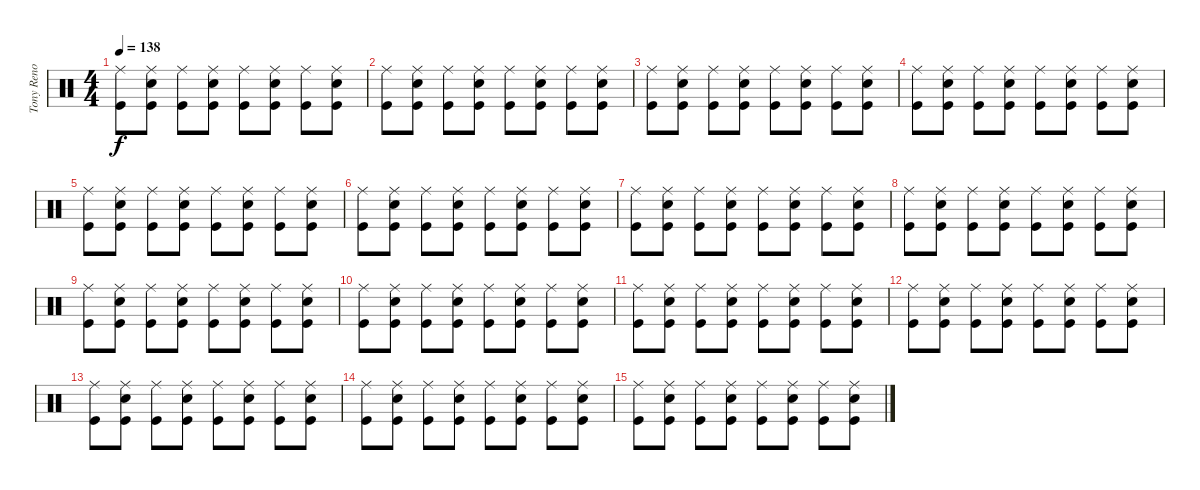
\track ("Tony Reno" "Tony Reno") {instrument percussion}
\staff {score}
\articulation defaults
\ts (4 4)
\tempo 138
\clef neutral
\ks c
("Ride (middle)" "Kick (hit)").8{dy f} ("Ride (middle)" "Snare (hit) 2" "Kick (hit)").8 ("Ride (middle)" "Kick (hit)").8 ("Snare (hit) 2" "Ride (middle)" "Kick (hit)").8 ("Ride (middle)" "Kick (hit)").8 ("Snare (hit) 2" "Ride (middle)" "Kick (hit)").8 ("Ride (middle)" "Kick (hit)").8 ("Ride (middle)" "Snare (hit) 2" "Kick (hit)").8 |
("Ride (middle)" "Kick (hit)").8 ("Ride (middle)" "Snare (hit) 2" "Kick (hit)").8 ("Ride (middle)" "Kick (hit)").8 ("Snare (hit) 2" "Ride (middle)" "Kick (hit)").8 ("Ride (middle)" "Kick (hit)").8 ("Snare (hit) 2" "Ride (middle)" "Kick (hit)").8 ("Ride (middle)" "Kick (hit)").8 ("Ride (middle)" "Snare (hit) 2" "Kick (hit)").8 |
("Ride (middle)" "Kick (hit)").8 ("Ride (middle)" "Snare (hit) 2" "Kick (hit)").8 ("Ride (middle)" "Kick (hit)").8 ("Snare (hit) 2" "Ride (middle)" "Kick (hit)").8 ("Ride (middle)" "Kick (hit)").8 ("Snare (hit) 2" "Ride (middle)" "Kick (hit)").8 ("Ride (middle)" "Kick (hit)").8 ("Ride (middle)" "Snare (hit) 2" "Kick (hit)").8 |
("Ride (middle)" "Kick (hit)").8 ("Ride (middle)" "Snare (hit) 2" "Kick (hit)").8 ("Ride (middle)" "Kick (hit)").8 ("Snare (hit) 2" "Ride (middle)" "Kick (hit)").8 ("Ride (middle)" "Kick (hit)").8 ("Snare (hit) 2" "Ride (middle)" "Kick (hit)").8 ("Ride (middle)" "Kick (hit)").8 ("Ride (middle)" "Snare (hit) 2" "Kick (hit)").8 |
("Ride (middle)" "Kick (hit)").8 ("Ride (middle)" "Snare (hit) 2" "Kick (hit)").8 ("Ride (middle)" "Kick (hit)").8 ("Snare (hit) 2" "Ride (middle)" "Kick (hit)").8 ("Ride (middle)" "Kick (hit)").8 ("Snare (hit) 2" "Ride (middle)" "Kick (hit)").8 ("Ride (middle)" "Kick (hit)").8 ("Ride (middle)" "Snare (hit) 2" "Kick (hit)").8 |
("Ride (middle)" "Kick (hit)").8 ("Ride (middle)" "Snare (hit) 2" "Kick (hit)").8 ("Ride (middle)" "Kick (hit)").8 ("Snare (hit) 2" "Ride (middle)" "Kick (hit)").8 ("Ride (middle)" "Kick (hit)").8 ("Snare (hit) 2" "Ride (middle)" "Kick (hit)").8 ("Ride (middle)" "Kick (hit)").8 ("Ride (middle)" "Snare (hit) 2" "Kick (hit)").8 |
("Ride (middle)" "Kick (hit)").8 ("Ride (middle)" "Snare (hit) 2" "Kick (hit)").8 ("Ride (middle)" "Kick (hit)").8 ("Snare (hit) 2" "Ride (middle)" "Kick (hit)").8 ("Ride (middle)" "Kick (hit)").8 ("Snare (hit) 2" "Ride (middle)" "Kick (hit)").8 ("Ride (middle)" "Kick (hit)").8 ("Ride (middle)" "Snare (hit) 2" "Kick (hit)").8 |
("Ride (middle)" "Kick (hit)").8 ("Ride (middle)" "Snare (hit) 2" "Kick (hit)").8 ("Ride (middle)" "Kick (hit)").8 ("Snare (hit) 2" "Ride (middle)" "Kick (hit)").8 ("Ride (middle)" "Kick (hit)").8 ("Snare (hit) 2" "Ride (middle)" "Kick (hit)").8 ("Ride (middle)" "Kick (hit)").8 ("Ride (middle)" "Snare (hit) 2" "Kick (hit)").8 |
("Ride (middle)" "Kick (hit)").8 ("Ride (middle)" "Snare (hit) 2" "Kick (hit)").8 ("Ride (middle)" "Kick (hit)").8 ("Snare (hit) 2" "Ride (middle)" "Kick (hit)").8 ("Ride (middle)" "Kick (hit)").8 ("Snare (hit) 2" "Ride (middle)" "Kick (hit)").8 ("Ride (middle)" "Kick (hit)").8 ("Ride (middle)" "Snare (hit) 2" "Kick (hit)").8 |
("Ride (middle)" "Kick (hit)").8 ("Ride (middle)" "Snare (hit) 2" "Kick (hit)").8 ("Ride (middle)" "Kick (hit)").8 ("Snare (hit) 2" "Ride (middle)" "Kick (hit)").8 ("Ride (middle)" "Kick (hit)").8 ("Snare (hit) 2" "Ride (middle)" "Kick (hit)").8 ("Ride (middle)" "Kick (hit)").8 ("Ride (middle)" "Snare (hit) 2" "Kick (hit)").8 |
("Ride (middle)" "Kick (hit)").8 ("Ride (middle)" "Snare (hit) 2" "Kick (hit)").8 ("Ride (middle)" "Kick (hit)").8 ("Snare (hit) 2" "Ride (middle)" "Kick (hit)").8 ("Ride (middle)" "Kick (hit)").8 ("Snare (hit) 2" "Ride (middle)" "Kick (hit)").8 ("Ride (middle)" "Kick (hit)").8 ("Ride (middle)" "Snare (hit) 2" "Kick (hit)").8 |
("Ride (middle)" "Kick (hit)").8 ("Ride (middle)" "Snare (hit) 2" "Kick (hit)").8 ("Ride (middle)" "Kick (hit)").8 ("Snare (hit) 2" "Ride (middle)" "Kick (hit)").8 ("Ride (middle)" "Kick (hit)").8 ("Snare (hit) 2" "Ride (middle)" "Kick (hit)").8 ("Ride (middle)" "Kick (hit)").8 ("Ride (middle)" "Snare (hit) 2" "Kick (hit)").8 |
("Ride (middle)" "Kick (hit)").8 ("Ride (middle)" "Snare (hit) 2" "Kick (hit)").8 ("Ride (middle)" "Kick (hit)").8 ("Snare (hit) 2" "Ride (middle)" "Kick (hit)").8 ("Ride (middle)" "Kick (hit)").8 ("Snare (hit) 2" "Ride (middle)" "Kick (hit)").8 ("Ride (middle)" "Kick (hit)").8 ("Ride (middle)" "Snare (hit) 2" "Kick (hit)").8 |
("Ride (middle)" "Kick (hit)").8 ("Ride (middle)" "Snare (hit) 2" "Kick (hit)").8 ("Ride (middle)" "Kick (hit)").8 ("Snare (hit) 2" "Ride (middle)" "Kick (hit)").8 ("Ride (middle)" "Kick (hit)").8 ("Snare (hit) 2" "Ride (middle)" "Kick (hit)").8 ("Ride (middle)" "Kick (hit)").8 ("Ride (middle)" "Snare (hit) 2" "Kick (hit)").8 |
("Ride (middle)" "Kick (hit)").8 ("Ride (middle)" "Snare (hit) 2" "Kick (hit)").8 ("Ride (middle)" "Kick (hit)").8 ("Snare (hit) 2" "Ride (middle)" "Kick (hit)").8 ("Ride (middle)" "Kick (hit)").8 ("Snare (hit) 2" "Ride (middle)" "Kick (hit)").8 ("Ride (middle)" "Kick (hit)").8 ("Ride (middle)" "Snare (hit) 2" "Kick (hit)").8
